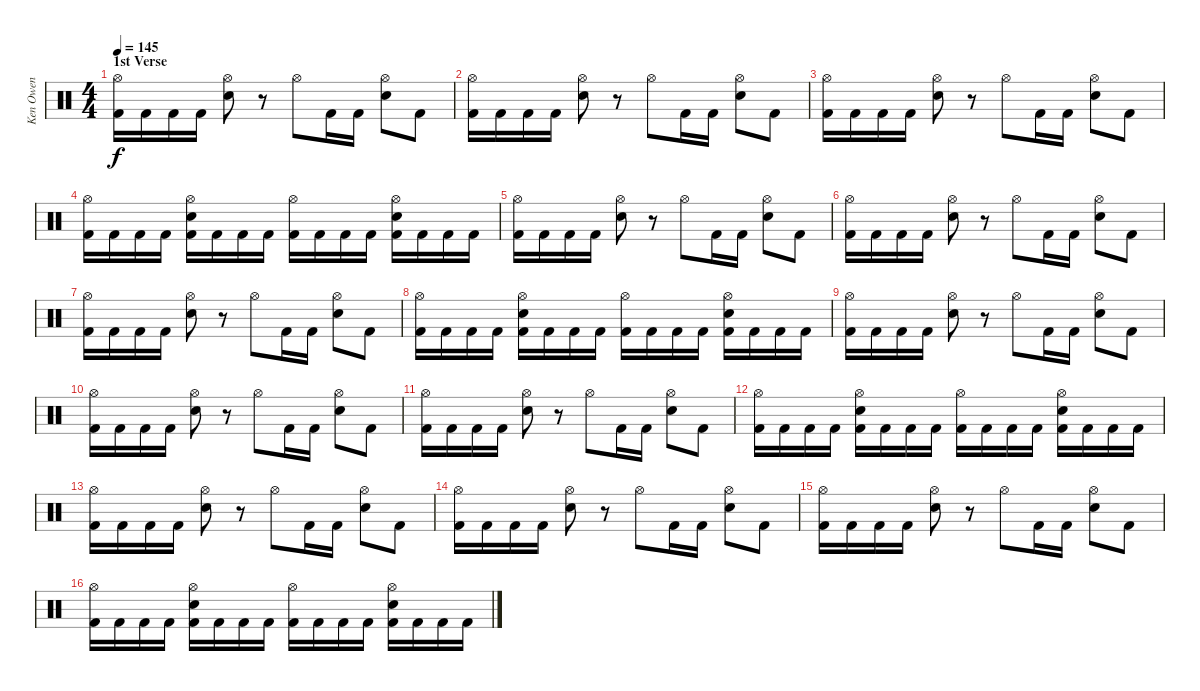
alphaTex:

\track ("Ken Owen" "Ken Owen") {instrument percussion}
\staff {score}
\articulation defaults
\ts (4 4)
\section ("" "1st Verse")
\tempo 145
\clef neutral
\ks c
("Hi-Hat (open)" "Kick (hit) 2").16{dy f} "Kick (hit) 2".16 "Kick (hit) 2".16 "Kick (hit) 2".16 ("Hi-Hat (open)" "Electric Snare (hit)").8 r.8 "Hi-Hat (open)".8 "Kick (hit) 2".16 "Kick (hit) 2".16 ("Hi-Hat (open)" "Electric Snare (hit)").8 "Kick (hit) 2".8 |
("Hi-Hat (open)" "Kick (hit) 2").16 "Kick (hit) 2".16 "Kick (hit) 2".16 "Kick (hit) 2".16 ("Hi-Hat (open)" "Electric Snare (hit)").8 r.8 "Hi-Hat (open)".8 "Kick (hit) 2".16 "Kick (hit) 2".16 ("Hi-Hat (open)" "Electric Snare (hit)").8 "Kick (hit) 2".8 |
("Hi-Hat (open)" "Kick (hit) 2").16 "Kick (hit) 2".16 "Kick (hit) 2".16 "Kick (hit) 2".16 ("Hi-Hat (open)" "Electric Snare (hit)").8 r.8 "Hi-Hat (open)".8 "Kick (hit) 2".16 "Kick (hit) 2".16 ("Hi-Hat (open)" "Electric Snare (hit)").8 "Kick (hit) 2".8 |
("Hi-Hat (open)" "Kick (hit) 2").16 "Kick (hit) 2".16 "Kick (hit) 2".16 "Kick (hit) 2".16 ("Hi-Hat (open)" "Electric Snare (hit)" "Kick (hit) 2").16 "Kick (hit) 2".16 "Kick (hit) 2".16 "Kick (hit) 2".16 ("Hi-Hat (open)" "Kick (hit) 2").16 "Kick (hit) 2".16 "Kick (hit) 2".16 "Kick (hit) 2".16 ("Hi-Hat (open)" "Electric Snare (hit)" "Kick (hit) 2").16 "Kick (hit) 2".16 "Kick (hit) 2".16 "Kick (hit) 2".16 |
("Hi-Hat (open)" "Kick (hit) 2").16 "Kick (hit) 2".16 "Kick (hit) 2".16 "Kick (hit) 2".16 ("Hi-Hat (open)" "Electric Snare (hit)").8 r.8 "Hi-Hat (open)".8 "Kick (hit) 2".16 "Kick (hit) 2".16 ("Hi-Hat (open)" "Electric Snare (hit)").8 "Kick (hit) 2".8 |
("Hi-Hat (open)" "Kick (hit) 2").16 "Kick (hit) 2".16 "Kick (hit) 2".16 "Kick (hit) 2".16 ("Hi-Hat (open)" "Electric Snare (hit)").8 r.8 "Hi-Hat (open)".8 "Kick (hit) 2".16 "Kick (hit) 2".16 ("Hi-Hat (open)" "Electric Snare (hit)").8 "Kick (hit) 2".8 |
("Hi-Hat (open)" "Kick (hit) 2").16 "Kick (hit) 2".16 "Kick (hit) 2".16 "Kick (hit) 2".16 ("Hi-Hat (open)" "Electric Snare (hit)").8 r.8 "Hi-Hat (open)".8 "Kick (hit) 2".16 "Kick (hit) 2".16 ("Hi-Hat (open)" "Electric Snare (hit)").8 "Kick (hit) 2".8 |
("Hi-Hat (open)" "Kick (hit) 2").16 "Kick (hit) 2".16 "Kick (hit) 2".16 "Kick (hit) 2".16 ("Hi-Hat (open)" "Electric Snare (hit)" "Kick (hit) 2").16 "Kick (hit) 2".16 "Kick (hit) 2".16 "Kick (hit) 2".16 ("Hi-Hat (open)" "Kick (hit) 2").16 "Kick (hit) 2".16 "Kick (hit) 2".16 "Kick (hit) 2".16 ("Hi-Hat (open)" "Electric Snare (hit)" "Kick (hit) 2").16 "Kick (hit) 2".16 "Kick (hit) 2".16 "Kick (hit) 2".16 |
("Hi-Hat (open)" "Kick (hit) 2").16 "Kick (hit) 2".16 "Kick (hit) 2".16 "Kick (hit) 2".16 ("Hi-Hat (open)" "Electric Snare (hit)").8 r.8 "Hi-Hat (open)".8 "Kick (hit) 2".16 "Kick (hit) 2".16 ("Hi-Hat (open)" "Electric Snare (hit)").8 "Kick (hit) 2".8 |
("Hi-Hat (open)" "Kick (hit) 2").16 "Kick (hit) 2".16 "Kick (hit) 2".16 "Kick (hit) 2".16 ("Hi-Hat (open)" "Electric Snare (hit)").8 r.8 "Hi-Hat (open)".8 "Kick (hit) 2".16 "Kick (hit) 2".16 ("Hi-Hat (open)" "Electric Snare (hit)").8 "Kick (hit) 2".8 |
("Hi-Hat (open)" "Kick (hit) 2").16 "Kick (hit) 2".16 "Kick (hit) 2".16 "Kick (hit) 2".16 ("Hi-Hat (open)" "Electric Snare (hit)").8 r.8 "Hi-Hat (open)".8 "Kick (hit) 2".16 "Kick (hit) 2".16 ("Hi-Hat (open)" "Electric Snare (hit)").8 "Kick (hit) 2".8 |
("Hi-Hat (open)" "Kick (hit) 2").16 "Kick (hit) 2".16 "Kick (hit) 2".16 "Kick (hit) 2".16 ("Hi-Hat (open)" "Electric Snare (hit)" "Kick (hit) 2").16 "Kick (hit) 2".16 "Kick (hit) 2".16 "Kick (hit) 2".16 ("Hi-Hat (open)" "Kick (hit) 2").16 "Kick (hit) 2".16 "Kick (hit) 2".16 "Kick (hit) 2".16 ("Hi-Hat (open)" "Electric Snare (hit)" "Kick (hit) 2").16 "Kick (hit) 2".16 "Kick (hit) 2".16 "Kick (hit) 2".16 |
("Hi-Hat (open)" "Kick (hit) 2").16 "Kick (hit) 2".16 "Kick (hit) 2".16 "Kick (hit) 2".16 ("Hi-Hat (open)" "Electric Snare (hit)").8 r.8 "Hi-Hat (open)".8 "Kick (hit) 2".16 "Kick (hit) 2".16 ("Hi-Hat (open)" "Electric Snare (hit)").8 "Kick (hit) 2".8 |
("Hi-Hat (open)" "Kick (hit) 2").16 "Kick (hit) 2".16 "Kick (hit) 2".16 "Kick (hit) 2".16 ("Hi-Hat (open)" "Electric Snare (hit)").8 r.8 "Hi-Hat (open)".8 "Kick (hit) 2".16 "Kick (hit) 2".16 ("Hi-Hat (open)" "Electric Snare (hit)").8 "Kick (hit) 2".8 |
("Hi-Hat (open)" "Kick (hit) 2").16 "Kick (hit) 2".16 "Kick (hit) 2".16 "Kick (hit) 2".16 ("Hi-Hat (open)" "Electric Snare (hit)").8 r.8 "Hi-Hat (open)".8 "Kick (hit) 2".16 "Kick (hit) 2".16 ("Hi-Hat (open)" "Electric Snare (hit)").8 "Kick (hit) 2".8 |
("Hi-Hat (open)" "Kick (hit) 2").16 "Kick (hit) 2".16 "Kick (hit) 2".16 "Kick (hit) 2".16 ("Hi-Hat (open)" "Electric Snare (hit)" "Kick (hit) 2").16 "Kick (hit) 2".16 "Kick (hit) 2".16 "Kick (hit) 2".16 ("Hi-Hat (open)" "Kick (hit) 2").16 "Kick (hit) 2".16 "Kick (hit) 2".16 "Kick (hit) 2".16 ("Hi-Hat (open)" "Electric Snare (hit)" "Kick (hit) 2").16 "Kick (hit) 2".16 "Kick (hit) 2".16 "Kick (hit) 2".16
